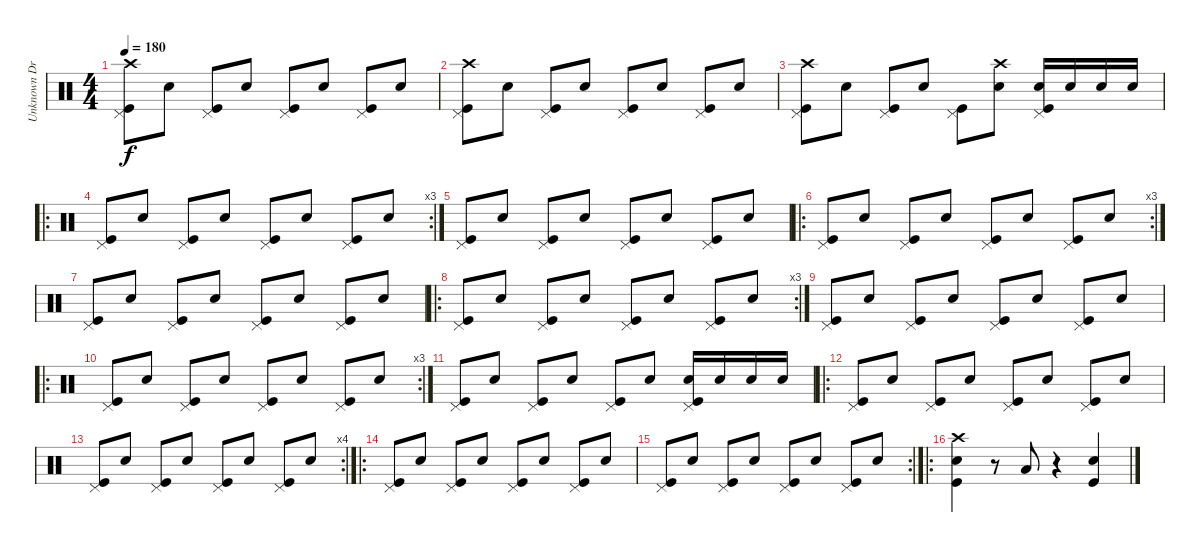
\track ("Unknown Drummer" "Unknown Dr") {instrument percussion}
\staff {score}
\articulation defaults
\ts (4 4)
\tempo 180
\clef neutral
\ks c
("Crash high (hit)" "Pedal Hi-Hat (hit)" "Kick (hit)").8{dy f} "Snare (hit) 2".8 ("Pedal Hi-Hat (hit)" "Kick (hit)").8 "Snare (hit) 2".8 ("Pedal Hi-Hat (hit)" "Kick (hit)").8 "Snare (hit) 2".8 ("Pedal Hi-Hat (hit)" "Kick (hit)").8 "Snare (hit) 2".8 |
("Crash high (hit)" "Pedal Hi-Hat (hit)" "Kick (hit)").8 "Snare (hit) 2".8 ("Pedal Hi-Hat (hit)" "Kick (hit)").8 "Snare (hit) 2".8 ("Pedal Hi-Hat (hit)" "Kick (hit)").8 "Snare (hit) 2".8 ("Pedal Hi-Hat (hit)" "Kick (hit)").8 "Snare (hit) 2".8 |
("Crash high (hit)" "Pedal Hi-Hat (hit)" "Kick (hit)").8 "Snare (hit) 2".8 ("Pedal Hi-Hat (hit)" "Kick (hit)").8 "Snare (hit) 2".8 ("Pedal Hi-Hat (hit)" "Kick (hit)").8 ("Crash high (hit)" "Snare (hit) 2").8 ("Pedal Hi-Hat (hit)" "Snare (hit) 2" "Kick (hit)").16 "Snare (hit) 2".16 "Snare (hit) 2".16 "Snare (hit) 2".16 |
\ro
\rc 3
("Pedal Hi-Hat (hit)" "Kick (hit)").8 "Snare (hit) 2".8 ("Pedal Hi-Hat (hit)" "Kick (hit)").8 "Snare (hit) 2".8 ("Pedal Hi-Hat (hit)" "Kick (hit)").8 "Snare (hit) 2".8 ("Pedal Hi-Hat (hit)" "Kick (hit)").8 "Snare (hit) 2".8 |
("Pedal Hi-Hat (hit)" "Kick (hit)").8 "Snare (hit) 2".8 ("Pedal Hi-Hat (hit)" "Kick (hit)").8 "Snare (hit) 2".8 ("Pedal Hi-Hat (hit)" "Kick (hit)").8 "Snare (hit) 2".8 ("Pedal Hi-Hat (hit)" "Kick (hit)").8 "Snare (hit) 2".8 |
\ro
\rc 3
("Pedal Hi-Hat (hit)" "Kick (hit)").8 "Snare (hit) 2".8 ("Pedal Hi-Hat (hit)" "Kick (hit)").8 "Snare (hit) 2".8 ("Pedal Hi-Hat (hit)" "Kick (hit)").8 "Snare (hit) 2".8 ("Pedal Hi-Hat (hit)" "Kick (hit)").8 "Snare (hit) 2".8 |
("Pedal Hi-Hat (hit)" "Kick (hit)").8 "Snare (hit) 2".8 ("Pedal Hi-Hat (hit)" "Kick (hit)").8 "Snare (hit) 2".8 ("Pedal Hi-Hat (hit)" "Kick (hit)").8 "Snare (hit) 2".8 ("Pedal Hi-Hat (hit)" "Kick (hit)").8 "Snare (hit) 2".8 |
\ro
\rc 3
("Pedal Hi-Hat (hit)" "Kick (hit)").8 "Snare (hit) 2".8 ("Pedal Hi-Hat (hit)" "Kick (hit)").8 "Snare (hit) 2".8 ("Pedal Hi-Hat (hit)" "Kick (hit)").8 "Snare (hit) 2".8 ("Pedal Hi-Hat (hit)" "Kick (hit)").8 "Snare (hit) 2".8 |
("Pedal Hi-Hat (hit)" "Kick (hit)").8 "Snare (hit) 2".8 ("Pedal Hi-Hat (hit)" "Kick (hit)").8 "Snare (hit) 2".8 ("Pedal Hi-Hat (hit)" "Kick (hit)").8 "Snare (hit) 2".8 ("Pedal Hi-Hat (hit)" "Kick (hit)").8 "Snare (hit) 2".8 |
\ro
\rc 3
("Pedal Hi-Hat (hit)" "Kick (hit)").8 "Snare (hit) 2".8 ("Pedal Hi-Hat (hit)" "Kick (hit)").8 "Snare (hit) 2".8 ("Pedal Hi-Hat (hit)" "Kick (hit)").8 "Snare (hit) 2".8 ("Pedal Hi-Hat (hit)" "Kick (hit)").8 "Snare (hit) 2".8 |
("Pedal Hi-Hat (hit)" "Kick (hit)").8 "Snare (hit) 2".8 ("Pedal Hi-Hat (hit)" "Kick (hit)").8 "Snare (hit) 2".8 ("Pedal Hi-Hat (hit)" "Kick (hit)").8 "Snare (hit) 2".8 ("Pedal Hi-Hat (hit)" "Snare (hit) 2" "Kick (hit)").16 "Snare (hit) 2".16 "Snare (hit) 2".16 "Snare (hit) 2".16 |
\ro
("Pedal Hi-Hat (hit)" "Kick (hit)").8 "Snare (hit) 2".8 ("Pedal Hi-Hat (hit)" "Kick (hit)").8 "Snare (hit) 2".8 ("Pedal Hi-Hat (hit)" "Kick (hit)").8 "Snare (hit) 2".8 ("Pedal Hi-Hat (hit)" "Kick (hit)").8 "Snare (hit) 2".8 |
\rc 4
("Pedal Hi-Hat (hit)" "Kick (hit)").8 "Snare (hit) 2".8 ("Pedal Hi-Hat (hit)" "Kick (hit)").8 "Snare (hit) 2".8 ("Pedal Hi-Hat (hit)" "Kick (hit)").8 "Snare (hit) 2".8 ("Pedal Hi-Hat (hit)" "Kick (hit)").8 "Snare (hit) 2".8 |
\ro
("Pedal Hi-Hat (hit)" "Kick (hit)").8 "Snare (hit) 2".8 ("Pedal Hi-Hat (hit)" "Kick (hit)").8 "Snare (hit) 2".8 ("Pedal Hi-Hat (hit)" "Kick (hit)").8 "Snare (hit) 2".8 ("Pedal Hi-Hat (hit)" "Kick (hit)").8 "Snare (hit) 2".8 |
\rc 2
("Pedal Hi-Hat (hit)" "Kick (hit)").8 "Snare (hit) 2".8 ("Pedal Hi-Hat (hit)" "Kick (hit)").8 "Snare (hit) 2".8 ("Pedal Hi-Hat (hit)" "Kick (hit)").8 "Snare (hit) 2".8 ("Pedal Hi-Hat (hit)" "Kick (hit)").8 "Snare (hit) 2".8 |
\ro
("Crash high (hit)" "Snare (hit) 2" "Kick (hit)").4 r.8 "Low Floor Tom (hit)".8 r.4 ("Snare (hit) 2" "Kick (hit)").4
